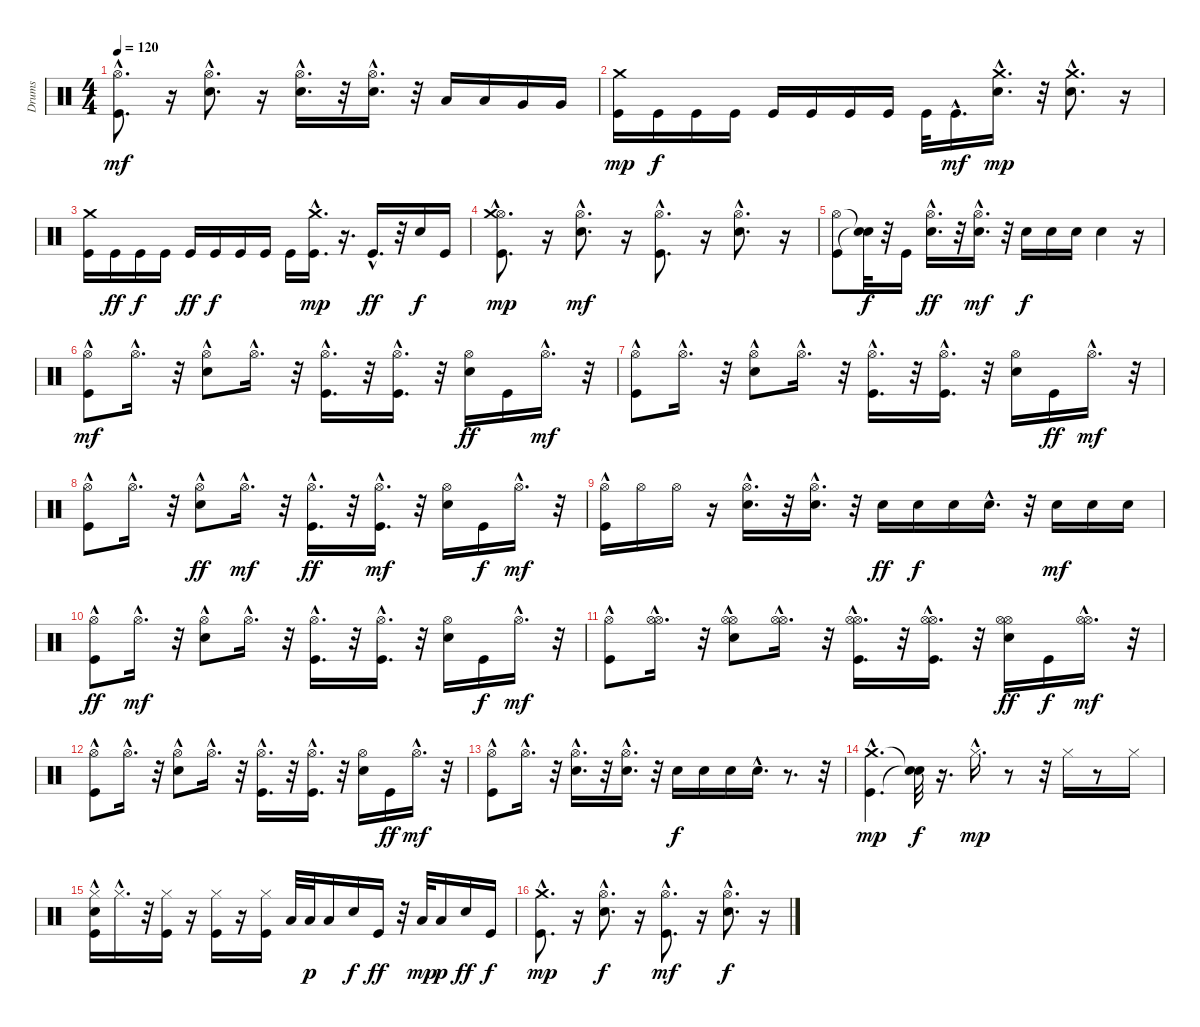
\track ("Drums" "Drums") {instrument percussion}
\staff {score}
\articulation defaults
\ts (4 4)
\tempo 120
\clef neutral
\ks c
("Hi-Hat (open)"{hac} "Kick (hit)").8{d dy mf} r.16 ("Hi-Hat (open)"{hac} "Electric Snare (hit)").8{d} r.16 ("Hi-Hat (open)"{hac} "Electric Snare (hit)").16{d} r.32 ("Hi-Hat (open)"{hac} "Electric Snare (hit)").16{d} r.32 "Low Tom (hit)".16 "Low Tom (hit)".16 "Very Low Tom (hit)".16 "Very Low Tom (hit)".16 |
("Kick (hit)" "Crash medium (hit)").16{dy mp} "Kick (hit)".16{dy f} "Kick (hit)".16 "Kick (hit)".16 "Kick (hit)".16 "Kick (hit)".16 "Kick (hit)".16 "Kick (hit)".16 "Kick (hit)".32 "Kick (hit)"{hac}.16{d dy mf} ("Crash medium (hit)"{hac} "Electric Snare (hit)"{hac}).16{d dy mp} r.32 ("Crash medium (hit)" "Electric Snare (hit)"{hac}).8{d} r.16 |
("Kick (hit)" "Crash medium (hit)").16 "Kick (hit)".16{dy ff} "Kick (hit)".16{dy f} "Kick (hit)".16 "Kick (hit)".16{dy ff} "Kick (hit)".16{dy f} "Kick (hit)".16 "Kick (hit)".16 "Kick (hit)".16 ("Kick (hit)"{hac} "Crash medium (hit)").16{d dy mp} r.16{d} "Kick (hit)"{hac}.16{d dy ff} r.32 "Electric Snare (hit)".16{dy f} "Kick (hit)".16 |
("Hi-Hat (open)"{hac} "Kick (hit)"{hac} "Crash medium (hit)"{hac}).8{d dy mp} r.16 ("Hi-Hat (open)"{hac} "Electric Snare (hit)"{hac}).8{d dy mf} r.16 ("Hi-Hat (open)"{hac} "Kick (hit)"{hac}).8{d} r.16 ("Hi-Hat (open)"{hac} "Electric Snare (hit)"{hac}).8{d} r.16 |
("Hi-Hat (open)" "Kick (hit)").8 ("Snare (hit)"{t} "Snare (hit)"{t}).32{dy f} r.32 "Kick (hit)".16 ("Hi-Hat (open)"{hac} "Electric Snare (hit)"{hac}).16{d dy ff} r.32 ("Hi-Hat (open)"{hac} "Electric Snare (hit)"{hac}).16{d dy mf} r.32 "Electric Snare (hit)".16{dy f} "Electric Snare (hit)".16 "Electric Snare (hit)".16 "Electric Snare (hit)".4 r.16 |
("Hi-Hat (open)"{hac} "Kick (hit)"{hac}).8{dy mf} "Hi-Hat (open)"{hac}.16{d} r.32 ("Hi-Hat (open)"{hac} "Electric Snare (hit)").8 "Hi-Hat (open)"{hac}.16{d} r.32 ("Hi-Hat (open)"{hac} "Kick (hit)"{hac}).16{d} r.32 ("Hi-Hat (open)"{hac} "Kick (hit)"{hac}).16{d} r.32 ("Hi-Hat (open)" "Electric Snare (hit)").16{dy ff} "Kick (hit)".16 "Hi-Hat (open)"{hac}.16{d dy mf} r.32 |
("Hi-Hat (open)"{hac} "Kick (hit)"{hac}).8 "Hi-Hat (open)"{hac}.16{d} r.32 ("Hi-Hat (open)"{hac} "Electric Snare (hit)").8 "Hi-Hat (open)"{hac}.16{d} r.32 ("Hi-Hat (open)"{hac} "Kick (hit)"{hac}).16{d} r.32 ("Hi-Hat (open)"{hac} "Kick (hit)"{hac}).16{d} r.32 ("Hi-Hat (open)" "Electric Snare (hit)").16 "Kick (hit)".16{dy ff} "Hi-Hat (open)"{hac}.16{d dy mf} r.32 |
("Hi-Hat (open)"{hac} "Kick (hit)"{hac}).8 "Hi-Hat (open)"{hac}.16{d} r.32 ("Hi-Hat (open)"{hac} "Electric Snare (hit)").8{dy ff} "Hi-Hat (open)"{hac}.16{d dy mf} r.32 ("Hi-Hat (open)"{hac} "Kick (hit)"{hac}).16{d dy ff} r.32 ("Hi-Hat (open)"{hac} "Kick (hit)"{hac}).16{d dy mf} r.32 ("Hi-Hat (open)" "Electric Snare (hit)").16 "Kick (hit)".16{dy f} "Hi-Hat (open)"{hac}.16{d dy mf} r.32 |
("Hi-Hat (open)" "Kick (hit)"{hac}).16 "Hi-Hat (open)".16 "Hi-Hat (open)".16 r.16 ("Hi-Hat (open)"{hac} "Electric Snare (hit)"{hac}).16{d} r.32 ("Hi-Hat (open)"{hac} "Electric Snare (hit)"{hac}).16{d} r.32 "Electric Snare (hit)".16{dy ff} "Electric Snare (hit)".16{dy f} "Electric Snare (hit)".16 "Electric Snare (hit)"{hac}.16{d} r.32 "Electric Snare (hit)".16{dy mf} "Electric Snare (hit)".16 "Electric Snare (hit)".16 |
("Hi-Hat (open)"{hac} "Kick (hit)"{hac}).8{dy ff} "Hi-Hat (open)"{hac}.16{d dy mf} r.32 ("Hi-Hat (open)"{hac} "Electric Snare (hit)").8 "Hi-Hat (open)"{hac}.16{d} r.32 ("Hi-Hat (open)"{hac} "Kick (hit)"{hac}).16{d} r.32 ("Hi-Hat (open)"{hac} "Kick (hit)"{hac}).16{d} r.32 ("Hi-Hat (open)" "Electric Snare (hit)").16 "Kick (hit)".16{dy f} "Hi-Hat (open)"{hac}.16{d dy mf} r.32 |
("Hi-Hat (open)"{hac} "Kick (hit)"{hac}).8 ("Hi-Hat (open)"{hac} "Hi-Hat (open)"{hac}).16{d} r.32 ("Hi-Hat (open)"{hac} "Hi-Hat (open)"{hac} "Electric Snare (hit)").8 ("Hi-Hat (open)"{hac} "Hi-Hat (open)"{hac}).16{d} r.32 ("Hi-Hat (open)"{hac} "Hi-Hat (open)"{hac} "Kick (hit)"{hac}).16{d} r.32 ("Hi-Hat (open)"{hac} "Hi-Hat (open)"{hac} "Kick (hit)"{hac}).16{d} r.32 ("Hi-Hat (open)" "Hi-Hat (open)" "Electric Snare (hit)").16{dy ff} "Kick (hit)".16{dy f} ("Hi-Hat (open)"{hac} "Hi-Hat (open)"{hac}).16{d dy mf} r.32 |
("Hi-Hat (open)"{hac} "Kick (hit)"{hac}).8 "Hi-Hat (open)"{hac}.16{d} r.32 ("Hi-Hat (open)"{hac} "Electric Snare (hit)").8 "Hi-Hat (open)"{hac}.16{d} r.32 ("Hi-Hat (open)"{hac} "Kick (hit)"{hac}).16{d} r.32 ("Hi-Hat (open)"{hac} "Kick (hit)"{hac}).16{d} r.32 ("Hi-Hat (open)" "Electric Snare (hit)").16 "Kick (hit)".16{dy ff} "Hi-Hat (open)"{hac}.16{d dy mf} r.32 |
("Hi-Hat (open)"{hac} "Kick (hit)"{hac}).8 "Hi-Hat (open)"{hac}.16{d} r.32 ("Hi-Hat (open)"{hac} "Electric Snare (hit)"{hac}).16{d} r.32 ("Hi-Hat (open)"{hac} "Electric Snare (hit)"{hac}).16{d} r.32 "Electric Snare (hit)".16{dy f} "Electric Snare (hit)".16 "Electric Snare (hit)".16 "Electric Snare (hit)"{hac}.16{d} r.8{d} r.32 |
("Kick (hit)"{hac} "Crash medium (hit)"{hac}).4{d dy mp} ("Snare (hit)"{t} "Snare (hit)"{t}).32{dy f} r.16{d} "Hi-Hat (closed)"{hac}.16{d dy mp} r.8 r.32 "Hi-Hat (closed)".16 r.8 "Hi-Hat (closed)".16 |
("Electric Snare (hit)"{hac} "Kick (hit)"{hac} "Hi-Hat (closed)").16 "Hi-Hat (closed)"{hac}.16{d} r.32 ("Kick (hit)" "Hi-Hat (closed)").16 r.16 ("Kick (hit)" "Hi-Hat (closed)").16 r.16 ("Kick (hit)" "Hi-Hat (closed)").16 "Low Tom (hit)".32 "Low Tom (hit)".32{dy p} "Low Tom (hit)".16 "Electric Snare (hit)".16{dy f} "Kick (hit)".16{dy ff} r.32 "Low Tom (hit)".32{dy mp} "Low Tom (hit)".16{dy p} "Electric Snare (hit)".16{dy ff} "Kick (hit)".16{dy f} |
("Kick (hit)"{hac} "Crash medium (hit)"{hac}).8{d dy mp} r.16 ("Hi-Hat (open)"{hac} "Electric Snare (hit)"{hac}).8{d dy f} r.16 ("Hi-Hat (open)"{hac} "Kick (hit)"{hac}).8{d dy mf} r.16 ("Hi-Hat (open)"{hac} "Electric Snare (hit)"{hac}).8{d dy f} r.16
